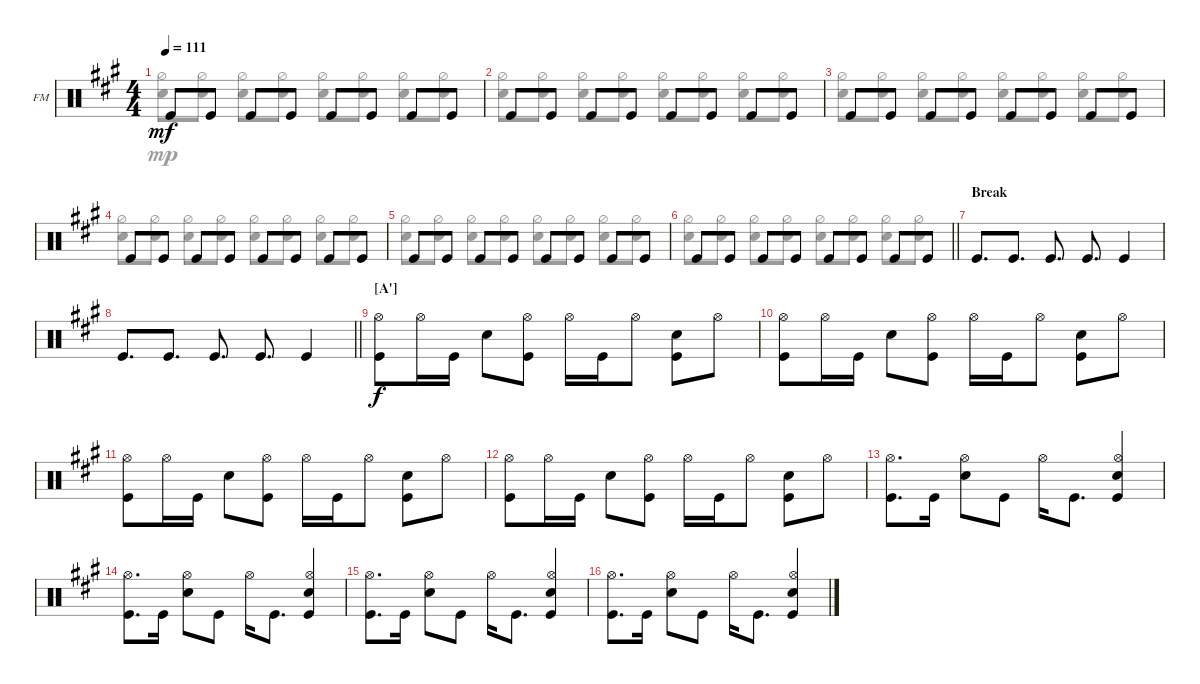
\defaultSystemsLayout 4
\bracketExtendMode groupsimilarinstruments
\firstSystemTrackNameOrientation horizontal
\otherSystemsTrackNameOrientation horizontal
\track ("Fabrizio Moretti" "FM") {instrument percussion}
\staff {score}
\articulation defaults
\voice
\ts (4 4)
\tempo 111
\clef neutral
\ks a "Kick (hit)".8{dy mf} "Kick (hit)".8 "Kick (hit)".8 "Kick (hit)".8 "Kick (hit)".8 "Kick (hit)".8 "Kick (hit)".8 "Kick (hit)".8
|
"Kick (hit)".8 "Kick (hit)".8 "Kick (hit)".8 "Kick (hit)".8 "Kick (hit)".8 "Kick (hit)".8 "Kick (hit)".8 "Kick (hit)".8 |
"Kick (hit)".8 "Kick (hit)".8 "Kick (hit)".8 "Kick (hit)".8 "Kick (hit)".8 "Kick (hit)".8 "Kick (hit)".8 "Kick (hit)".8 |
"Kick (hit)".8 "Kick (hit)".8 "Kick (hit)".8 "Kick (hit)".8 "Kick (hit)".8 "Kick (hit)".8 "Kick (hit)".8 "Kick (hit)".8 |
"Kick (hit)".8 "Kick (hit)".8 "Kick (hit)".8 "Kick (hit)".8 "Kick (hit)".8 "Kick (hit)".8 "Kick (hit)".8 "Kick (hit)".8 |
\barLineRight lightlight "Kick (hit)".8 "Kick (hit)".8 "Kick (hit)".8 "Kick (hit)".8 "Kick (hit)".8 "Kick (hit)".8 "Kick (hit)".8 "Kick (hit)".8
|
\section ("" "Break")
"Kick (hit)".8{d} "Kick (hit)".8{d} "Kick (hit)".8{d} "Kick (hit)".8{d} "Kick (hit)".4 |
\barLineRight lightlight "Kick (hit)".8{d} "Kick (hit)".8{d} "Kick (hit)".8{d} "Kick (hit)".8{d} "Kick (hit)".4
|
\section ("A'" "")
("Kick (hit)" "Hi-Hat (open)").8{dy f} "Hi-Hat (open)".16 "Kick (hit)".16 "Snare (hit) 2".8 ("Kick (hit)" "Hi-Hat (open)").8 "Hi-Hat (open)".16 "Kick (hit)".16 "Hi-Hat (open)".8 ("Snare (hit) 2" "Kick (hit)").8 "Hi-Hat (open)".8 |
("Kick (hit)" "Hi-Hat (open)").8 "Hi-Hat (open)".16 "Kick (hit)".16 "Snare (hit) 2".8 ("Kick (hit)" "Hi-Hat (open)").8 "Hi-Hat (open)".16 "Kick (hit)".16 "Hi-Hat (open)".8 ("Snare (hit) 2" "Kick (hit)").8 "Hi-Hat (open)".8 |
("Kick (hit)" "Hi-Hat (open)").8 "Hi-Hat (open)".16 "Kick (hit)".16 "Snare (hit) 2".8 ("Kick (hit)" "Hi-Hat (open)").8 "Hi-Hat (open)".16 "Kick (hit)".16 "Hi-Hat (open)".8 ("Snare (hit) 2" "Kick (hit)").8 "Hi-Hat (open)".8 |
("Kick (hit)" "Hi-Hat (open)").8 "Hi-Hat (open)".16 "Kick (hit)".16 "Snare (hit) 2".8 ("Kick (hit)" "Hi-Hat (open)").8 "Hi-Hat (open)".16 "Kick (hit)".16 "Hi-Hat (open)".8 ("Snare (hit) 2" "Kick (hit)").8 "Hi-Hat (open)".8 |
("Kick (hit)" "Hi-Hat (open)").8{d} "Kick (hit)".16 ("Snare (hit) 2" "Hi-Hat (open)").8 "Kick (hit)".8 "Hi-Hat (open)".16 "Kick (hit)".8{d} ("Snare (hit) 2" "Kick (hit)" "Hi-Hat (open)").4 |
("Kick (hit)" "Hi-Hat (open)").8{d} "Kick (hit)".16 ("Snare (hit) 2" "Hi-Hat (open)").8 "Kick (hit)".8 "Hi-Hat (open)".16 "Kick (hit)".8{d} ("Snare (hit) 2" "Kick (hit)" "Hi-Hat (open)").4 |
("Kick (hit)" "Hi-Hat (open)").8{d} "Kick (hit)".16 ("Snare (hit) 2" "Hi-Hat (open)").8 "Kick (hit)".8 "Hi-Hat (open)".16 "Kick (hit)".8{d} ("Snare (hit) 2" "Kick (hit)" "Hi-Hat (open)").4 |
("Kick (hit)" "Hi-Hat (open)").8{d} "Kick (hit)".16 ("Snare (hit) 2" "Hi-Hat (open)").8 "Kick (hit)".8 "Hi-Hat (open)".16 "Kick (hit)".8{d} ("Snare (hit) 2" "Kick (hit)" "Hi-Hat (open)").4
\voice
\clef neutral
\ottava regular
\simile none
\ks a
("Snare (hit) 2" "Hi-Hat (half)").8{dy mp} ("Snare (hit) 2" "Hi-Hat (half)").8 ("Snare (hit) 2" "Hi-Hat (half)").8 ("Snare (hit) 2" "Hi-Hat (half)").8 ("Snare (hit) 2" "Hi-Hat (half)").8 ("Snare (hit) 2" "Hi-Hat (half)").8 ("Snare (hit) 2" "Hi-Hat (half)").8 ("Snare (hit) 2" "Hi-Hat (half)").8 |
("Snare (hit) 2" "Hi-Hat (half)").8 ("Snare (hit) 2" "Hi-Hat (half)").8 ("Snare (hit) 2" "Hi-Hat (half)").8 ("Snare (hit) 2" "Hi-Hat (half)").8 ("Snare (hit) 2" "Hi-Hat (half)").8 ("Snare (hit) 2" "Hi-Hat (half)").8 ("Snare (hit) 2" "Hi-Hat (half)").8 ("Snare (hit) 2" "Hi-Hat (half)").8 |
("Snare (hit) 2" "Hi-Hat (half)").8 ("Snare (hit) 2" "Hi-Hat (half)").8 ("Snare (hit) 2" "Hi-Hat (half)").8 ("Snare (hit) 2" "Hi-Hat (half)").8 ("Snare (hit) 2" "Hi-Hat (half)").8 ("Snare (hit) 2" "Hi-Hat (half)").8 ("Snare (hit) 2" "Hi-Hat (half)").8 ("Snare (hit) 2" "Hi-Hat (half)").8 |
("Snare (hit) 2" "Hi-Hat (half)").8 ("Snare (hit) 2" "Hi-Hat (half)").8 ("Snare (hit) 2" "Hi-Hat (half)").8 ("Snare (hit) 2" "Hi-Hat (half)").8 ("Snare (hit) 2" "Hi-Hat (half)").8 ("Snare (hit) 2" "Hi-Hat (half)").8 ("Snare (hit) 2" "Hi-Hat (half)").8 ("Snare (hit) 2" "Hi-Hat (half)").8 |
("Snare (hit) 2" "Hi-Hat (half)").8 ("Snare (hit) 2" "Hi-Hat (half)").8 ("Snare (hit) 2" "Hi-Hat (half)").8 ("Snare (hit) 2" "Hi-Hat (half)").8 ("Snare (hit) 2" "Hi-Hat (half)").8 ("Snare (hit) 2" "Hi-Hat (half)").8 ("Snare (hit) 2" "Hi-Hat (half)").8 ("Snare (hit) 2" "Hi-Hat (half)").8 |
\barLineRight lightlight
("Snare (hit) 2" "Hi-Hat (half)").8 ("Snare (hit) 2" "Hi-Hat (half)").8 ("Snare (hit) 2" "Hi-Hat (half)").8 ("Snare (hit) 2" "Hi-Hat (half)").8 ("Snare (hit) 2" "Hi-Hat (half)").8 ("Snare (hit) 2" "Hi-Hat (half)").8 ("Snare (hit) 2" "Hi-Hat (half)").8 ("Snare (hit) 2" "Hi-Hat (half)").8 |
|
\barLineRight lightlight
|
|
|
|
|
|
|
|
